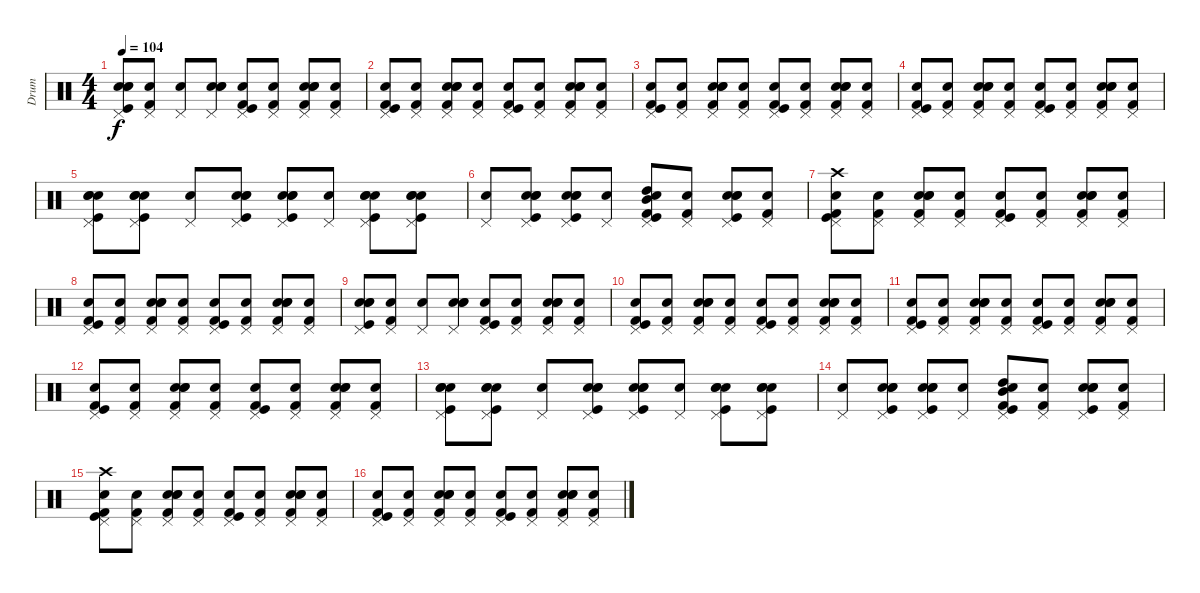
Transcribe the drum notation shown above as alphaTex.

\track ("Drum" "Drum") {instrument percussion}
\staff {score}
\articulation defaults
\ts (4 4)
\tempo 104
\clef neutral
\ks c
("Snare (hit)" "Kick (hit)" "Pedal Hi-Hat (hit)" "Snare (hit) 2" "Electric Snare (hit)").8{dy f} ("Snare (hit)" "Pedal Hi-Hat (hit)" "Kick (hit) 2").8 ("Snare (hit)" "Pedal Hi-Hat (hit)").8 ("Snare (hit)" "Pedal Hi-Hat (hit)" "Electric Snare (hit)" "Snare (hit) 2").8 ("Snare (hit)" "Kick (hit) 2" "Pedal Hi-Hat (hit)" "Kick (hit)").8 ("Snare (hit)" "Pedal Hi-Hat (hit)" "Kick (hit) 2").8 ("Snare (hit)" "Kick (hit) 2" "Snare (hit) 2" "Electric Snare (hit)" "Pedal Hi-Hat (hit)").8 ("Snare (hit)" "Pedal Hi-Hat (hit)" "Kick (hit) 2").8 |
("Snare (hit)" "Kick (hit) 2" "Pedal Hi-Hat (hit)" "Kick (hit)").8 ("Snare (hit)" "Pedal Hi-Hat (hit)" "Kick (hit) 2").8 ("Snare (hit)" "Kick (hit) 2" "Electric Snare (hit)" "Snare (hit) 2" "Pedal Hi-Hat (hit)").8 ("Snare (hit)" "Pedal Hi-Hat (hit)" "Kick (hit) 2").8 ("Snare (hit)" "Kick (hit) 2" "Pedal Hi-Hat (hit)" "Kick (hit)").8 ("Snare (hit)" "Pedal Hi-Hat (hit)" "Kick (hit) 2").8 ("Snare (hit)" "Kick (hit) 2" "Snare (hit) 2" "Electric Snare (hit)" "Pedal Hi-Hat (hit)").8 ("Snare (hit)" "Pedal Hi-Hat (hit)" "Kick (hit) 2").8 |
("Snare (hit)" "Kick (hit) 2" "Pedal Hi-Hat (hit)" "Kick (hit)").8 ("Snare (hit)" "Pedal Hi-Hat (hit)" "Kick (hit) 2").8 ("Snare (hit)" "Kick (hit) 2" "Electric Snare (hit)" "Snare (hit) 2" "Pedal Hi-Hat (hit)").8 ("Snare (hit)" "Pedal Hi-Hat (hit)" "Kick (hit) 2").8 ("Snare (hit)" "Kick (hit)" "Pedal Hi-Hat (hit)" "Kick (hit) 2").8 ("Snare (hit)" "Pedal Hi-Hat (hit)" "Kick (hit) 2").8 ("Snare (hit)" "Kick (hit) 2" "Snare (hit) 2" "Electric Snare (hit)" "Pedal Hi-Hat (hit)").8 ("Snare (hit)" "Pedal Hi-Hat (hit)" "Kick (hit) 2").8 |
("Snare (hit)" "Kick (hit)" "Pedal Hi-Hat (hit)" "Kick (hit) 2").8 ("Snare (hit)" "Pedal Hi-Hat (hit)" "Kick (hit) 2").8 ("Snare (hit)" "Kick (hit) 2" "Electric Snare (hit)" "Snare (hit) 2" "Pedal Hi-Hat (hit)").8 ("Snare (hit)" "Pedal Hi-Hat (hit)" "Kick (hit) 2").8 ("Snare (hit)" "Kick (hit)" "Pedal Hi-Hat (hit)" "Kick (hit) 2").8 ("Snare (hit)" "Pedal Hi-Hat (hit)" "Kick (hit) 2").8 ("Snare (hit)" "Kick (hit) 2" "Snare (hit) 2" "Electric Snare (hit)" "Pedal Hi-Hat (hit)").8 ("Snare (hit)" "Pedal Hi-Hat (hit)" "Kick (hit) 2").8 |
("Snare (hit)" "Pedal Hi-Hat (hit)" "Snare (hit) 2" "Kick (hit)" "Electric Snare (hit)").8 ("Snare (hit)" "Kick (hit)" "Pedal Hi-Hat (hit)" "Snare (hit) 2" "Electric Snare (hit)").8 ("Snare (hit)" "Pedal Hi-Hat (hit)").8 ("Snare (hit)" "Snare (hit) 2" "Pedal Hi-Hat (hit)" "Kick (hit)" "Electric Snare (hit)").8 ("Snare (hit)" "Kick (hit)" "Pedal Hi-Hat (hit)" "Snare (hit) 2" "Electric Snare (hit)").8 ("Snare (hit)" "Pedal Hi-Hat (hit)").8 ("Snare (hit)" "Snare (hit) 2" "Kick (hit)" "Pedal Hi-Hat (hit)" "Electric Snare (hit)").8 ("Snare (hit)" "Pedal Hi-Hat (hit)" "Snare (hit) 2" "Kick (hit)" "Electric Snare (hit)").8 |
("Snare (hit)" "Pedal Hi-Hat (hit)").8 ("Snare (hit)" "Pedal Hi-Hat (hit)" "Kick (hit)" "Snare (hit) 2" "Electric Snare (hit)").8 ("Snare (hit)" "Snare (hit) 2" "Kick (hit)" "Pedal Hi-Hat (hit)" "Electric Snare (hit)").8 ("Snare (hit)" "Pedal Hi-Hat (hit)").8 ("Snare (hit)" "Pedal Hi-Hat (hit)" "Kick (hit)" "Kick (hit) 2" "High Tom (hit)" "Mid Tom (hit)").8 ("Snare (hit)" "Pedal Hi-Hat (hit)" "Kick (hit) 2").8 ("Snare (hit)" "Snare (hit) 2" "Kick (hit)" "Pedal Hi-Hat (hit)" "Electric Snare (hit)").8 ("Snare (hit)" "Pedal Hi-Hat (hit)" "Kick (hit) 2").8 |
("Snare (hit)" "Kick (hit)" "Crash high (hit)" "Pedal Hi-Hat (hit)" "Kick (hit) 2").8 ("Snare (hit)" "Kick (hit) 2" "Pedal Hi-Hat (hit)").8 ("Snare (hit)" "Pedal Hi-Hat (hit)" "Snare (hit) 2" "Electric Snare (hit)" "Kick (hit) 2").8 ("Snare (hit)" "Kick (hit) 2" "Pedal Hi-Hat (hit)").8 ("Snare (hit)" "Kick (hit)" "Pedal Hi-Hat (hit)" "Kick (hit) 2").8 ("Snare (hit)" "Kick (hit) 2" "Pedal Hi-Hat (hit)").8 ("Snare (hit)" "Pedal Hi-Hat (hit)" "Electric Snare (hit)" "Snare (hit) 2" "Kick (hit) 2").8 ("Snare (hit)" "Kick (hit) 2" "Pedal Hi-Hat (hit)").8 |
("Snare (hit)" "Kick (hit)" "Kick (hit) 2" "Pedal Hi-Hat (hit)").8 ("Snare (hit)" "Kick (hit) 2" "Pedal Hi-Hat (hit)").8 ("Snare (hit)" "Kick (hit) 2" "Electric Snare (hit)" "Snare (hit) 2" "Pedal Hi-Hat (hit)").8 ("Snare (hit)" "Kick (hit) 2" "Pedal Hi-Hat (hit)").8 ("Snare (hit)" "Kick (hit)" "Kick (hit) 2" "Pedal Hi-Hat (hit)").8 ("Snare (hit)" "Kick (hit) 2" "Pedal Hi-Hat (hit)").8 ("Snare (hit)" "Kick (hit) 2" "Snare (hit) 2" "Electric Snare (hit)" "Pedal Hi-Hat (hit)").8 ("Snare (hit)" "Kick (hit) 2" "Pedal Hi-Hat (hit)").8 |
("Snare (hit)" "Electric Snare (hit)" "Snare (hit) 2" "Pedal Hi-Hat (hit)" "Kick (hit)").8 ("Snare (hit)" "Kick (hit) 2" "Pedal Hi-Hat (hit)").8 ("Snare (hit)" "Pedal Hi-Hat (hit)").8 ("Snare (hit)" "Snare (hit) 2" "Electric Snare (hit)" "Pedal Hi-Hat (hit)").8 ("Snare (hit)" "Kick (hit)" "Pedal Hi-Hat (hit)" "Kick (hit) 2").8 ("Snare (hit)" "Kick (hit) 2" "Pedal Hi-Hat (hit)").8 ("Snare (hit)" "Pedal Hi-Hat (hit)" "Electric Snare (hit)" "Snare (hit) 2" "Kick (hit) 2").8 ("Snare (hit)" "Kick (hit) 2" "Pedal Hi-Hat (hit)").8 |
("Snare (hit)" "Kick (hit)" "Pedal Hi-Hat (hit)" "Kick (hit) 2").8 ("Snare (hit)" "Kick (hit) 2" "Pedal Hi-Hat (hit)").8 ("Snare (hit)" "Pedal Hi-Hat (hit)" "Snare (hit) 2" "Electric Snare (hit)" "Kick (hit) 2").8 ("Snare (hit)" "Kick (hit) 2" "Pedal Hi-Hat (hit)").8 ("Snare (hit)" "Kick (hit)" "Pedal Hi-Hat (hit)" "Kick (hit) 2").8 ("Snare (hit)" "Kick (hit) 2" "Pedal Hi-Hat (hit)").8 ("Snare (hit)" "Pedal Hi-Hat (hit)" "Electric Snare (hit)" "Snare (hit) 2" "Kick (hit) 2").8 ("Snare (hit)" "Kick (hit) 2" "Pedal Hi-Hat (hit)").8 |
("Snare (hit)" "Kick (hit)" "Pedal Hi-Hat (hit)" "Kick (hit) 2").8 ("Snare (hit)" "Kick (hit) 2" "Pedal Hi-Hat (hit)").8 ("Snare (hit)" "Pedal Hi-Hat (hit)" "Snare (hit) 2" "Electric Snare (hit)" "Kick (hit) 2").8 ("Snare (hit)" "Kick (hit) 2" "Pedal Hi-Hat (hit)").8 ("Snare (hit)" "Kick (hit) 2" "Pedal Hi-Hat (hit)" "Kick (hit)").8 ("Snare (hit)" "Kick (hit) 2" "Pedal Hi-Hat (hit)").8 ("Snare (hit)" "Pedal Hi-Hat (hit)" "Electric Snare (hit)" "Snare (hit) 2" "Kick (hit) 2").8 ("Snare (hit)" "Kick (hit) 2" "Pedal Hi-Hat (hit)").8 |
("Snare (hit)" "Kick (hit) 2" "Pedal Hi-Hat (hit)" "Kick (hit)").8 ("Snare (hit)" "Kick (hit) 2" "Pedal Hi-Hat (hit)").8 ("Snare (hit)" "Pedal Hi-Hat (hit)" "Snare (hit) 2" "Electric Snare (hit)" "Kick (hit) 2").8 ("Snare (hit)" "Kick (hit) 2" "Pedal Hi-Hat (hit)").8 ("Snare (hit)" "Kick (hit) 2" "Pedal Hi-Hat (hit)" "Kick (hit)").8 ("Snare (hit)" "Kick (hit) 2" "Pedal Hi-Hat (hit)").8 ("Snare (hit)" "Pedal Hi-Hat (hit)" "Electric Snare (hit)" "Snare (hit) 2" "Kick (hit) 2").8 ("Snare (hit)" "Kick (hit) 2" "Pedal Hi-Hat (hit)").8 |
("Snare (hit)" "Electric Snare (hit)" "Kick (hit)" "Snare (hit) 2" "Pedal Hi-Hat (hit)").8 ("Snare (hit)" "Electric Snare (hit)" "Snare (hit) 2" "Pedal Hi-Hat (hit)" "Kick (hit)").8 ("Snare (hit)" "Pedal Hi-Hat (hit)").8 ("Snare (hit)" "Electric Snare (hit)" "Kick (hit)" "Pedal Hi-Hat (hit)" "Snare (hit) 2").8 ("Snare (hit)" "Electric Snare (hit)" "Snare (hit) 2" "Pedal Hi-Hat (hit)" "Kick (hit)").8 ("Snare (hit)" "Pedal Hi-Hat (hit)").8 ("Snare (hit)" "Electric Snare (hit)" "Pedal Hi-Hat (hit)" "Kick (hit)" "Snare (hit) 2").8 ("Snare (hit)" "Electric Snare (hit)" "Kick (hit)" "Snare (hit) 2" "Pedal Hi-Hat (hit)").8 |
("Snare (hit)" "Pedal Hi-Hat (hit)").8 ("Snare (hit)" "Snare (hit) 2" "Kick (hit)" "Electric Snare (hit)" "Pedal Hi-Hat (hit)").8 ("Snare (hit)" "Electric Snare (hit)" "Pedal Hi-Hat (hit)" "Kick (hit)" "Snare (hit) 2").8 ("Snare (hit)" "Pedal Hi-Hat (hit)").8 ("Snare (hit)" "Mid Tom (hit)" "Kick (hit) 2" "Pedal Hi-Hat (hit)" "High Tom (hit)" "Kick (hit)").8 ("Snare (hit)" "Kick (hit) 2" "Pedal Hi-Hat (hit)").8 ("Snare (hit)" "Electric Snare (hit)" "Kick (hit)" "Pedal Hi-Hat (hit)" "Snare (hit) 2").8 ("Snare (hit)" "Kick (hit) 2" "Pedal Hi-Hat (hit)").8 |
("Snare (hit)" "Kick (hit) 2" "Pedal Hi-Hat (hit)" "Crash high (hit)" "Kick (hit)").8 ("Snare (hit)" "Pedal Hi-Hat (hit)" "Kick (hit) 2").8 ("Snare (hit)" "Kick (hit) 2" "Electric Snare (hit)" "Snare (hit) 2" "Pedal Hi-Hat (hit)").8 ("Snare (hit)" "Pedal Hi-Hat (hit)" "Kick (hit) 2").8 ("Snare (hit)" "Kick (hit) 2" "Pedal Hi-Hat (hit)" "Kick (hit)").8 ("Snare (hit)" "Pedal Hi-Hat (hit)" "Kick (hit) 2").8 ("Snare (hit)" "Kick (hit) 2" "Snare (hit) 2" "Electric Snare (hit)" "Pedal Hi-Hat (hit)").8 ("Snare (hit)" "Pedal Hi-Hat (hit)" "Kick (hit) 2").8 |
("Snare (hit)" "Pedal Hi-Hat (hit)" "Kick (hit) 2" "Kick (hit)").8 ("Snare (hit)" "Pedal Hi-Hat (hit)" "Kick (hit) 2").8 ("Snare (hit)" "Pedal Hi-Hat (hit)" "Snare (hit) 2" "Electric Snare (hit)" "Kick (hit) 2").8 ("Snare (hit)" "Pedal Hi-Hat (hit)" "Kick (hit) 2").8 ("Snare (hit)" "Pedal Hi-Hat (hit)" "Kick (hit) 2" "Kick (hit)").8 ("Snare (hit)" "Pedal Hi-Hat (hit)" "Kick (hit) 2").8 ("Snare (hit)" "Pedal Hi-Hat (hit)" "Electric Snare (hit)" "Snare (hit) 2" "Kick (hit) 2").8 ("Snare (hit)" "Pedal Hi-Hat (hit)" "Kick (hit) 2").8
